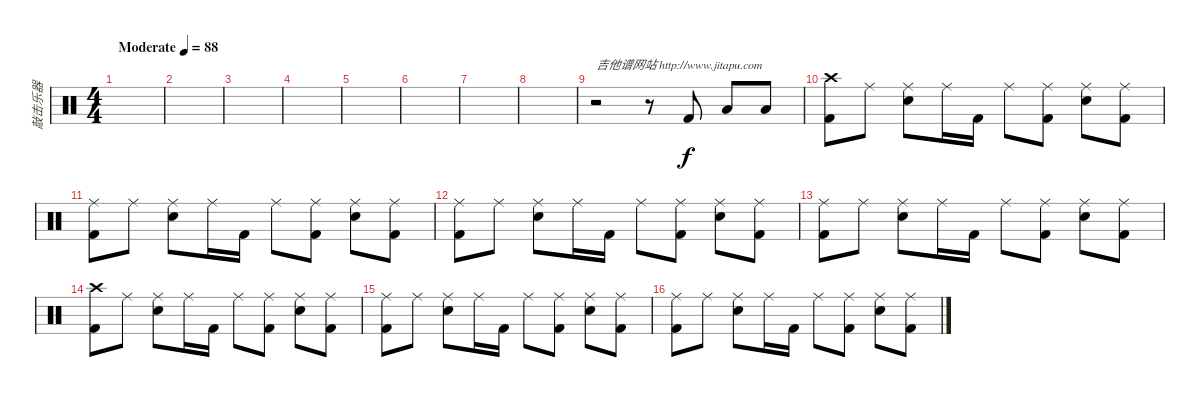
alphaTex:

\track ("敲击乐器" "敲击乐器") {instrument percussion}
\staff {score}
\articulation defaults
\ts (4 4)
\tempo (88 "Moderate")
\clef neutral
\ks c
|
|
|
|
|
|
|
|
r.2{txt "吉他谱网站 http://www.jitapu.com"} r.8 "Kick (hit) 2".8 "Low Floor Tom (hit)".8 "Low Tom (hit)".8 |
("Crash high (hit)" "Kick (hit) 2").8 "Ride (middle)".8 ("Ride (middle)" "Electric Snare (hit)").8 "Ride (middle)".16 "Kick (hit) 2".16 "Ride (middle)".8 ("Ride (middle)" "Kick (hit) 2").8 ("Ride (middle)" "Electric Snare (hit)").8 ("Ride (middle)" "Kick (hit) 2").8 |
("Ride (middle)" "Kick (hit) 2").8 "Ride (middle)".8 ("Ride (middle)" "Electric Snare (hit)").8 "Ride (middle)".16 "Kick (hit) 2".16 "Ride (middle)".8 ("Ride (middle)" "Kick (hit) 2").8 ("Ride (middle)" "Electric Snare (hit)").8 ("Ride (middle)" "Kick (hit) 2").8 |
("Ride (middle)" "Kick (hit) 2").8 "Ride (middle)".8 ("Ride (middle)" "Electric Snare (hit)").8 "Ride (middle)".16 "Kick (hit) 2".16 "Ride (middle)".8 ("Ride (middle)" "Kick (hit) 2").8 ("Ride (middle)" "Electric Snare (hit)").8 ("Ride (middle)" "Kick (hit) 2").8 |
("Ride (middle)" "Kick (hit) 2").8 "Ride (middle)".8 ("Ride (middle)" "Electric Snare (hit)").8 "Ride (middle)".16 "Kick (hit) 2".16 "Ride (middle)".8 ("Ride (middle)" "Kick (hit) 2").8 ("Ride (middle)" "Electric Snare (hit)").8 ("Ride (middle)" "Kick (hit) 2").8 |
("Crash high (hit)" "Kick (hit) 2").8 "Ride (middle)".8 ("Ride (middle)" "Electric Snare (hit)").8 "Ride (middle)".16 "Kick (hit) 2".16 "Ride (middle)".8 ("Ride (middle)" "Kick (hit) 2").8 ("Ride (middle)" "Electric Snare (hit)").8 ("Ride (middle)" "Kick (hit) 2").8 |
("Ride (middle)" "Kick (hit) 2").8 "Ride (middle)".8 ("Ride (middle)" "Electric Snare (hit)").8 "Ride (middle)".16 "Kick (hit) 2".16 "Ride (middle)".8 ("Ride (middle)" "Kick (hit) 2").8 ("Ride (middle)" "Electric Snare (hit)").8 ("Ride (middle)" "Kick (hit) 2").8 |
("Ride (middle)" "Kick (hit) 2").8 "Ride (middle)".8 ("Ride (middle)" "Electric Snare (hit)").8 "Ride (middle)".16 "Kick (hit) 2".16 "Ride (middle)".8 ("Ride (middle)" "Kick (hit) 2").8 ("Ride (middle)" "Electric Snare (hit)").8 ("Ride (middle)" "Kick (hit) 2").8
